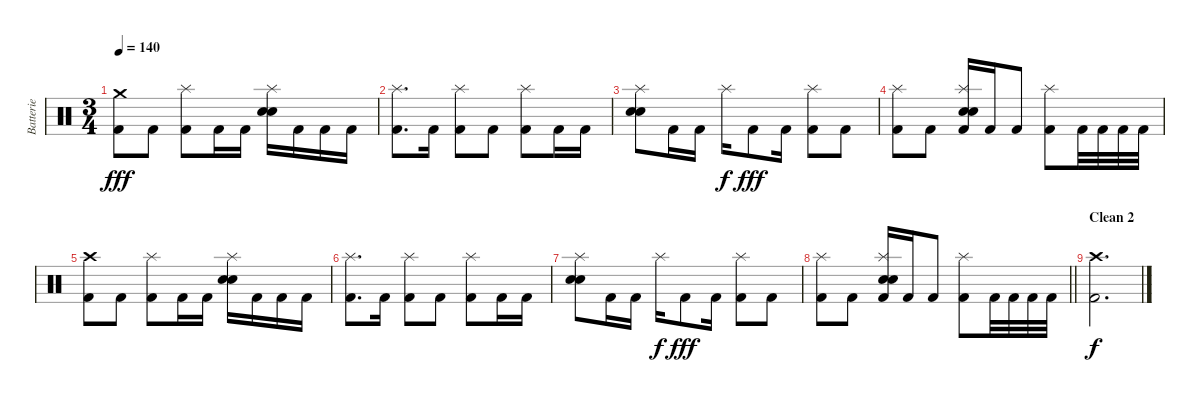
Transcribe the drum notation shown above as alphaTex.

\track ("Batterie" "Batterie") {instrument percussion}
\staff {score}
\articulation defaults
\ts (3 4)
\tempo 140
\clef neutral
\ks c
("Crash medium (hit)" "Kick (hit) 2").8{dy fff} "Kick (hit) 2".8 ("Splash (hit)" "Kick (hit) 2").8 "Kick (hit) 2".16 "Kick (hit) 2".16 ("Splash (hit)" "Electric Snare (hit)" "Electric Snare (hit)").16 "Kick (hit) 2".16 "Kick (hit) 2".16 "Kick (hit) 2".16 |
("Splash (hit)" "Kick (hit) 2").8{d} "Kick (hit) 2".16 ("Splash (hit)" "Kick (hit) 2").8 "Kick (hit) 2".8 ("Splash (hit)" "Kick (hit) 2").8 "Kick (hit) 2".16 "Kick (hit) 2".16 |
("Splash (hit)" "Electric Snare (hit)" "Electric Snare (hit)").8 "Kick (hit) 2".16 "Kick (hit) 2".16 "Splash (hit)".16{dy f} "Kick (hit) 2".8{dy fff} "Kick (hit) 2".16 ("Splash (hit)" "Kick (hit) 2").8 "Kick (hit) 2".8 |
("Splash (hit)" "Kick (hit) 2").8 "Kick (hit) 2".8 ("Splash (hit)" "Electric Snare (hit)" "Electric Snare (hit)" "Kick (hit) 2").16 "Kick (hit) 2".16 "Kick (hit) 2".8 ("Splash (hit)" "Kick (hit) 2").8 "Kick (hit) 2".32 "Kick (hit) 2".32 "Kick (hit) 2".32 "Kick (hit) 2".32 |
("Crash high (hit)" "Kick (hit) 2").8 "Kick (hit) 2".8 ("Splash (hit)" "Kick (hit) 2").8 "Kick (hit) 2".16 "Kick (hit) 2".16 ("Splash (hit)" "Electric Snare (hit)" "Electric Snare (hit)").16 "Kick (hit) 2".16 "Kick (hit) 2".16 "Kick (hit) 2".16 |
("Splash (hit)" "Kick (hit) 2").8{d} "Kick (hit) 2".16 ("Splash (hit)" "Kick (hit) 2").8 "Kick (hit) 2".8 ("Splash (hit)" "Kick (hit) 2").8 "Kick (hit) 2".16 "Kick (hit) 2".16 |
("Splash (hit)" "Electric Snare (hit)" "Electric Snare (hit)").8 "Kick (hit) 2".16 "Kick (hit) 2".16 "Splash (hit)".16{dy f} "Kick (hit) 2".8{dy fff} "Kick (hit) 2".16 ("Splash (hit)" "Kick (hit) 2").8 "Kick (hit) 2".8 |
\barLineRight lightlight
("Splash (hit)" "Kick (hit) 2").8 "Kick (hit) 2".8 ("Splash (hit)" "Electric Snare (hit)" "Electric Snare (hit)" "Kick (hit) 2").16 "Kick (hit) 2".16 "Kick (hit) 2".8 ("Splash (hit)" "Kick (hit) 2").8 "Kick (hit) 2".32 "Kick (hit) 2".32 "Kick (hit) 2".32 "Kick (hit) 2".32 |
\section ("" "Clean 2")
("Crash high (hit)" "Kick (hit) 2").2{d dy f}
